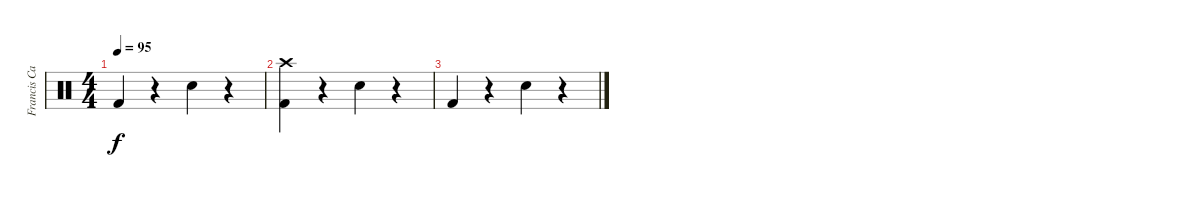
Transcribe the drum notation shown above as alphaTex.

\track ("Francis Cassol" "Francis Ca") {instrument percussion}
\staff {score}
\articulation defaults
\ts (4 4)
\tempo 95
\clef neutral
\ks c "Kick (hit) 2".4{dy f}
r.4 "Electric Snare (hit)".4 r.4 |
("Crash high (hit)" "Kick (hit) 2").4 r.4 "Electric Snare (hit)".4 r.4 |
"Kick (hit) 2".4 r.4 "Electric Snare (hit)".4 r.4
